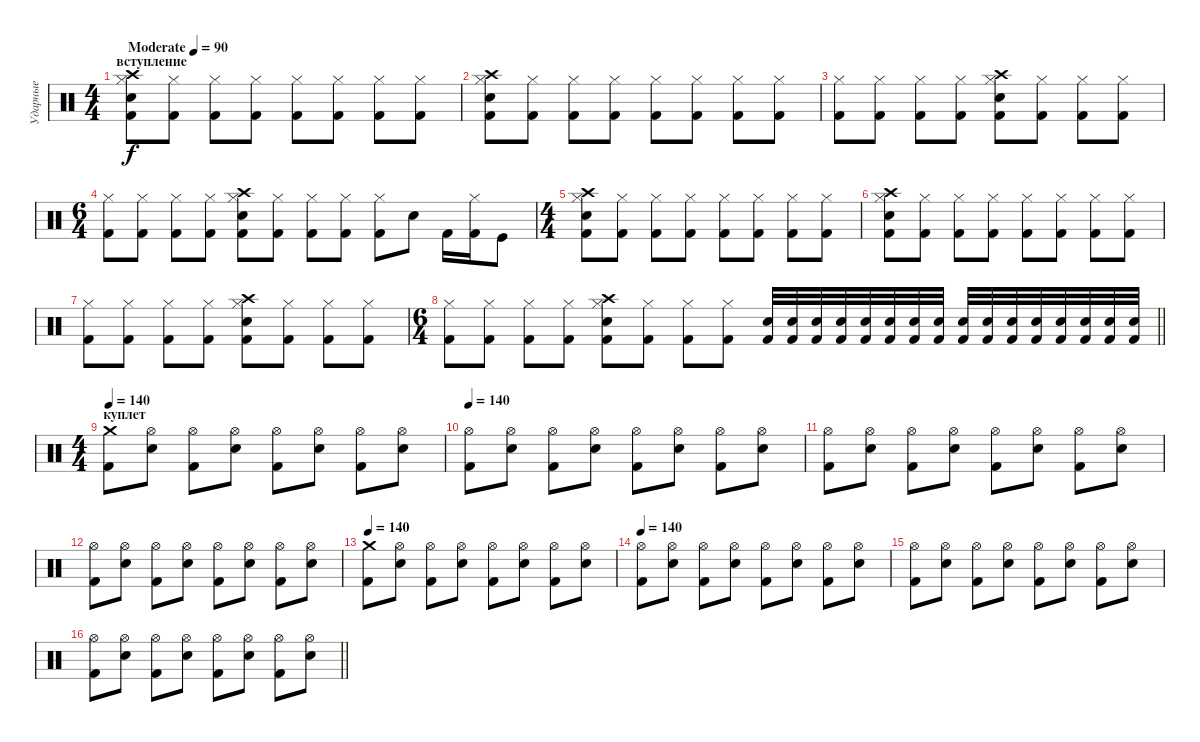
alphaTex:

\track ("Ударные" "Ударные") {instrument percussion}
\staff {score}
\articulation defaults
\ts (4 4)
\section ("" "вступление")
\tempo (90 "Moderate")
\clef neutral
\ks c
("Hi-Hat (closed)" "Kick (hit) 2" "Crash high (hit)" "Electric Snare (hit)").8{dy f} ("Hi-Hat (closed)" "Kick (hit) 2").8 ("Hi-Hat (closed)" "Kick (hit) 2").8 ("Hi-Hat (closed)" "Kick (hit) 2").8 ("Hi-Hat (closed)" "Kick (hit) 2").8 ("Hi-Hat (closed)" "Kick (hit) 2").8 ("Hi-Hat (closed)" "Kick (hit) 2").8 ("Hi-Hat (closed)" "Kick (hit) 2").8 |
("Hi-Hat (closed)" "Kick (hit) 2" "Crash high (hit)" "Electric Snare (hit)").8 ("Hi-Hat (closed)" "Kick (hit) 2").8 ("Hi-Hat (closed)" "Kick (hit) 2").8 ("Hi-Hat (closed)" "Kick (hit) 2").8 ("Hi-Hat (closed)" "Kick (hit) 2").8 ("Hi-Hat (closed)" "Kick (hit) 2").8 ("Hi-Hat (closed)" "Kick (hit) 2").8 ("Hi-Hat (closed)" "Kick (hit) 2").8 |
("Hi-Hat (closed)" "Kick (hit) 2").8 ("Hi-Hat (closed)" "Kick (hit) 2").8 ("Hi-Hat (closed)" "Kick (hit) 2").8 ("Hi-Hat (closed)" "Kick (hit) 2").8 ("Hi-Hat (closed)" "Kick (hit) 2" "Crash high (hit)" "Electric Snare (hit)").8 ("Hi-Hat (closed)" "Kick (hit) 2").8 ("Hi-Hat (closed)" "Kick (hit) 2").8 ("Hi-Hat (closed)" "Kick (hit) 2").8 |
\ts (6 4)
("Hi-Hat (closed)" "Kick (hit) 2").8 ("Hi-Hat (closed)" "Kick (hit) 2").8 ("Hi-Hat (closed)" "Kick (hit) 2").8 ("Hi-Hat (closed)" "Kick (hit) 2").8 ("Hi-Hat (closed)" "Kick (hit) 2" "Crash high (hit)" "Electric Snare (hit)").8 ("Hi-Hat (closed)" "Kick (hit) 2").8 ("Hi-Hat (closed)" "Kick (hit) 2").8 ("Hi-Hat (closed)" "Kick (hit) 2").8 ("Hi-Hat (closed)" "Kick (hit) 2").8 "Snare (hit) 2".8 "Kick (hit) 2".16 ("Hi-Hat (closed)" "Kick (hit) 2").16 "Kick (hit)".8 |
\ts (4 4)
("Hi-Hat (closed)" "Kick (hit) 2" "Crash high (hit)" "Electric Snare (hit)").8 ("Hi-Hat (closed)" "Kick (hit) 2").8 ("Hi-Hat (closed)" "Kick (hit) 2").8 ("Hi-Hat (closed)" "Kick (hit) 2").8 ("Hi-Hat (closed)" "Kick (hit) 2").8 ("Hi-Hat (closed)" "Kick (hit) 2").8 ("Hi-Hat (closed)" "Kick (hit) 2").8 ("Hi-Hat (closed)" "Kick (hit) 2").8 |
("Hi-Hat (closed)" "Kick (hit) 2" "Crash high (hit)" "Electric Snare (hit)").8 ("Hi-Hat (closed)" "Kick (hit) 2").8 ("Hi-Hat (closed)" "Kick (hit) 2").8 ("Hi-Hat (closed)" "Kick (hit) 2").8 ("Hi-Hat (closed)" "Kick (hit) 2").8 ("Hi-Hat (closed)" "Kick (hit) 2").8 ("Hi-Hat (closed)" "Kick (hit) 2").8 ("Hi-Hat (closed)" "Kick (hit) 2").8 |
("Hi-Hat (closed)" "Kick (hit) 2").8 ("Hi-Hat (closed)" "Kick (hit) 2").8 ("Hi-Hat (closed)" "Kick (hit) 2").8 ("Hi-Hat (closed)" "Kick (hit) 2").8 ("Hi-Hat (closed)" "Kick (hit) 2" "Crash high (hit)" "Electric Snare (hit)").8 ("Hi-Hat (closed)" "Kick (hit) 2").8 ("Hi-Hat (closed)" "Kick (hit) 2").8 ("Hi-Hat (closed)" "Kick (hit) 2").8 |
\ts (6 4)
\barLineRight lightlight
("Hi-Hat (closed)" "Kick (hit) 2").8 ("Hi-Hat (closed)" "Kick (hit) 2").8 ("Hi-Hat (closed)" "Kick (hit) 2").8 ("Hi-Hat (closed)" "Kick (hit) 2").8 ("Hi-Hat (closed)" "Kick (hit) 2" "Crash high (hit)" "Electric Snare (hit)").8 ("Hi-Hat (closed)" "Kick (hit) 2").8 ("Hi-Hat (closed)" "Kick (hit) 2").8 ("Hi-Hat (closed)" "Kick (hit) 2").8 ("Electric Snare (hit)" "Kick (hit) 2").32 ("Electric Snare (hit)" "Kick (hit) 2").32 ("Electric Snare (hit)" "Kick (hit) 2").32 ("Electric Snare (hit)" "Kick (hit) 2").32 ("Electric Snare (hit)" "Kick (hit) 2").32 ("Electric Snare (hit)" "Kick (hit) 2").32 ("Electric Snare (hit)" "Kick (hit) 2").32 ("Electric Snare (hit)" "Kick (hit) 2").32 ("Electric Snare (hit)" "Kick (hit) 2").32 ("Electric Snare (hit)" "Kick (hit) 2").32 ("Electric Snare (hit)" "Kick (hit) 2").32 ("Electric Snare (hit)" "Kick (hit) 2").32 ("Electric Snare (hit)" "Kick (hit) 2").32 ("Electric Snare (hit)" "Kick (hit) 2").32 ("Electric Snare (hit)" "Kick (hit) 2").32 ("Electric Snare (hit)" "Kick (hit) 2").32 |
\ts (4 4)
\section ("" "куплет")
\tempo 140
("Kick (hit) 2" "Crash medium (hit)").8 ("Electric Snare (hit)" "Hi-Hat (open)").8 ("Kick (hit) 2" "Hi-Hat (open)").8 ("Electric Snare (hit)" "Hi-Hat (open)").8 ("Kick (hit) 2" "Hi-Hat (open)").8 ("Electric Snare (hit)" "Hi-Hat (open)").8 ("Kick (hit) 2" "Hi-Hat (open)").8 ("Electric Snare (hit)" "Hi-Hat (open)").8 |
\tempo 140
("Kick (hit) 2" "Hi-Hat (open)").8 ("Electric Snare (hit)" "Hi-Hat (open)").8 ("Kick (hit) 2" "Hi-Hat (open)").8 ("Electric Snare (hit)" "Hi-Hat (open)").8 ("Kick (hit) 2" "Hi-Hat (open)").8 ("Electric Snare (hit)" "Hi-Hat (open)").8 ("Kick (hit) 2" "Hi-Hat (open)").8 ("Electric Snare (hit)" "Hi-Hat (open)").8 |
("Kick (hit) 2" "Hi-Hat (open)").8 ("Electric Snare (hit)" "Hi-Hat (open)").8 ("Kick (hit) 2" "Hi-Hat (open)").8 ("Electric Snare (hit)" "Hi-Hat (open)").8 ("Kick (hit) 2" "Hi-Hat (open)").8 ("Electric Snare (hit)" "Hi-Hat (open)").8 ("Kick (hit) 2" "Hi-Hat (open)").8 ("Electric Snare (hit)" "Hi-Hat (open)").8 |
("Kick (hit) 2" "Hi-Hat (open)").8 ("Electric Snare (hit)" "Hi-Hat (open)").8 ("Kick (hit) 2" "Hi-Hat (open)").8 ("Electric Snare (hit)" "Hi-Hat (open)").8 ("Kick (hit) 2" "Hi-Hat (open)").8 ("Electric Snare (hit)" "Hi-Hat (open)").8 ("Kick (hit) 2" "Hi-Hat (open)").8 ("Electric Snare (hit)" "Hi-Hat (open)").8 |
\tempo 140
("Kick (hit) 2" "Crash medium (hit)").8 ("Electric Snare (hit)" "Hi-Hat (open)").8 ("Kick (hit) 2" "Hi-Hat (open)").8 ("Electric Snare (hit)" "Hi-Hat (open)").8 ("Kick (hit) 2" "Hi-Hat (open)").8 ("Electric Snare (hit)" "Hi-Hat (open)").8 ("Kick (hit) 2" "Hi-Hat (open)").8 ("Electric Snare (hit)" "Hi-Hat (open)").8 |
\tempo 140
("Kick (hit) 2" "Hi-Hat (open)").8 ("Electric Snare (hit)" "Hi-Hat (open)").8 ("Kick (hit) 2" "Hi-Hat (open)").8 ("Electric Snare (hit)" "Hi-Hat (open)").8 ("Kick (hit) 2" "Hi-Hat (open)").8 ("Electric Snare (hit)" "Hi-Hat (open)").8 ("Kick (hit) 2" "Hi-Hat (open)").8 ("Electric Snare (hit)" "Hi-Hat (open)").8 |
("Kick (hit) 2" "Hi-Hat (open)").8 ("Electric Snare (hit)" "Hi-Hat (open)").8 ("Kick (hit) 2" "Hi-Hat (open)").8 ("Electric Snare (hit)" "Hi-Hat (open)").8 ("Kick (hit) 2" "Hi-Hat (open)").8 ("Electric Snare (hit)" "Hi-Hat (open)").8 ("Kick (hit) 2" "Hi-Hat (open)").8 ("Electric Snare (hit)" "Hi-Hat (open)").8 |
\barLineRight lightlight
("Kick (hit) 2" "Hi-Hat (open)").8 ("Electric Snare (hit)" "Hi-Hat (open)").8 ("Kick (hit) 2" "Hi-Hat (open)").8 ("Electric Snare (hit)" "Hi-Hat (open)").8 ("Kick (hit) 2" "Hi-Hat (open)").8 ("Electric Snare (hit)" "Hi-Hat (open)").8 ("Kick (hit) 2" "Hi-Hat (open)").8 ("Electric Snare (hit)" "Hi-Hat (open)").8
